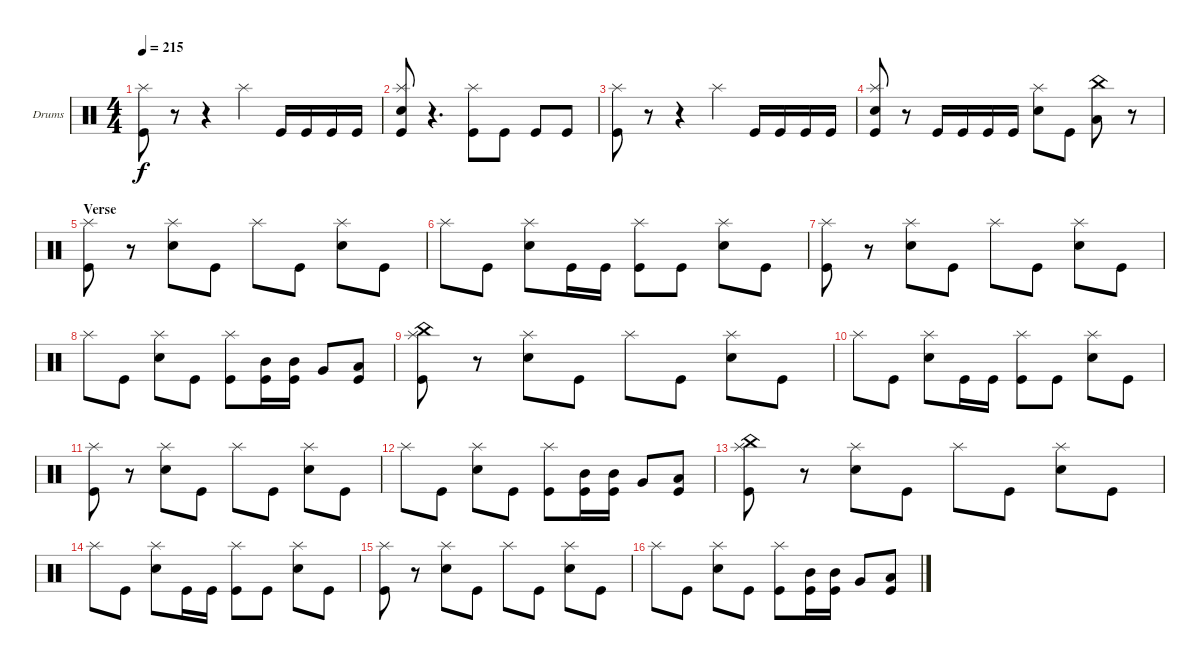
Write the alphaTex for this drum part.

\defaultSystemsLayout 4
\bracketExtendMode groupsimilarinstruments
\firstSystemTrackNameOrientation horizontal
\otherSystemsTrackNameOrientation horizontal
\track ("Drumkit" "Drums") {instrument percussion}
\staff {score}
\articulation defaults
\ts (4 4)
\tempo 215
\clef neutral
\ks c
("Kick (hit)" "Splash (hit)").8{dy f} r.8 r.4 "Splash (hit)".4 "Kick (hit)".16 "Kick (hit)".16 "Kick (hit)".16 "Kick (hit)".16 |
("Kick (hit)" "Splash (hit)" "Snare (hit) 2").8 r.4{d} ("Kick (hit)" "Splash (hit)").8 "Kick (hit)".8 "Kick (hit)".8 "Kick (hit)".8 |
("Kick (hit)" "Splash (hit)").8 r.8 r.4 "Splash (hit)".4 "Kick (hit)".16 "Kick (hit)".16 "Kick (hit)".16 "Kick (hit)".16 |
("Kick (hit)" "Splash (hit)" "Snare (hit) 2").8 r.8 "Kick (hit)".16 "Kick (hit)".16 "Kick (hit)".16 "Kick (hit)".16 ("Splash (hit)" "Snare (hit) 2").8 "Kick (hit)".8 ("Low Tom (hit)" "China (hit)").8 r.8 |
\section ("" "Verse")
("Splash (hit)" "Kick (hit)").8 r.8 ("Splash (hit)" "Snare (hit) 2").8 "Kick (hit)".8 "Splash (hit)".8 "Kick (hit)".8 ("Splash (hit)" "Snare (hit) 2").8 "Kick (hit)".8 |
"Splash (hit)".8 "Kick (hit)".8 ("Splash (hit)" "Snare (hit) 2").8 "Kick (hit)".16 "Kick (hit)".16 ("Splash (hit)" "Kick (hit)").8 "Kick (hit)".8 ("Splash (hit)" "Snare (hit) 2").8 "Kick (hit)".8 |
("Splash (hit)" "Kick (hit)").8 r.8 ("Splash (hit)" "Snare (hit) 2").8 "Kick (hit)".8 "Splash (hit)".8 "Kick (hit)".8 ("Splash (hit)" "Snare (hit) 2").8 "Kick (hit)".8 |
"Splash (hit)".8 "Kick (hit)".8 ("Splash (hit)" "Snare (hit) 2").8 "Kick (hit)".8 ("Splash (hit)" "Kick (hit)").8 ("Kick (hit)" "Mid Tom (hit)").16 ("Kick (hit)" "Mid Tom (hit)").16 "Very Low Tom (hit)".8 ("Kick (hit)" "Low Tom (hit)").8 |
("Splash (hit)" "Kick (hit)" "China (hit)").8 r.8 ("Splash (hit)" "Snare (hit) 2").8 "Kick (hit)".8 "Splash (hit)".8 "Kick (hit)".8 ("Splash (hit)" "Snare (hit) 2").8 "Kick (hit)".8 |
"Splash (hit)".8 "Kick (hit)".8 ("Splash (hit)" "Snare (hit) 2").8 "Kick (hit)".16 "Kick (hit)".16 ("Splash (hit)" "Kick (hit)").8 "Kick (hit)".8 ("Splash (hit)" "Snare (hit) 2").8 "Kick (hit)".8 |
("Splash (hit)" "Kick (hit)").8 r.8 ("Splash (hit)" "Snare (hit) 2").8 "Kick (hit)".8 "Splash (hit)".8 "Kick (hit)".8 ("Splash (hit)" "Snare (hit) 2").8 "Kick (hit)".8 |
"Splash (hit)".8 "Kick (hit)".8 ("Splash (hit)" "Snare (hit) 2").8 "Kick (hit)".8 ("Splash (hit)" "Kick (hit)").8 ("Kick (hit)" "Mid Tom (hit)").16 ("Kick (hit)" "Mid Tom (hit)").16 "Very Low Tom (hit)".8 ("Kick (hit)" "Low Tom (hit)").8 |
("Splash (hit)" "Kick (hit)" "China (hit)").8 r.8 ("Splash (hit)" "Snare (hit) 2").8 "Kick (hit)".8 "Splash (hit)".8 "Kick (hit)".8 ("Splash (hit)" "Snare (hit) 2").8 "Kick (hit)".8 |
"Splash (hit)".8 "Kick (hit)".8 ("Splash (hit)" "Snare (hit) 2").8 "Kick (hit)".16 "Kick (hit)".16 ("Splash (hit)" "Kick (hit)").8 "Kick (hit)".8 ("Splash (hit)" "Snare (hit) 2").8 "Kick (hit)".8 |
("Splash (hit)" "Kick (hit)").8 r.8 ("Splash (hit)" "Snare (hit) 2").8 "Kick (hit)".8 "Splash (hit)".8 "Kick (hit)".8 ("Splash (hit)" "Snare (hit) 2").8 "Kick (hit)".8 |
"Splash (hit)".8 "Kick (hit)".8 ("Splash (hit)" "Snare (hit) 2").8 "Kick (hit)".8 ("Splash (hit)" "Kick (hit)").8 ("Kick (hit)" "Mid Tom (hit)").16 ("Kick (hit)" "Mid Tom (hit)").16 "Very Low Tom (hit)".8 ("Kick (hit)" "Low Tom (hit)").8
